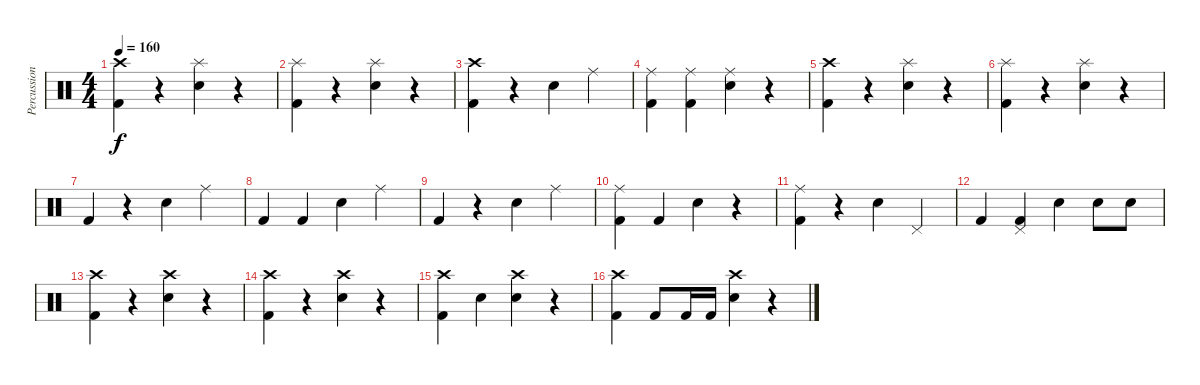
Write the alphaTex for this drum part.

\track ("Percussion" "Percussion") {instrument percussion}
\staff {score}
\articulation defaults
\ts (4 4)
\tempo 160
\clef neutral
\ks c
("Crash high (hit)" "Kick (hit) 2").4{dy f} r.4 ("Splash (hit)" "Snare (hit) 2").4 r.4 |
("Splash (hit)" "Kick (hit) 2").4 r.4 ("Splash (hit)" "Snare (hit) 2").4 r.4 |
("Crash high (hit)" "Kick (hit) 2").4 r.4 "Snare (hit) 2".4 "Ride (middle)".4 |
("Ride (middle)" "Kick (hit) 2").4 ("Ride (middle)" "Kick (hit) 2").4 ("Ride (middle)" "Snare (hit) 2").4 r.4 |
("Crash high (hit)" "Kick (hit) 2").4 r.4 ("Splash (hit)" "Snare (hit) 2").4 r.4 |
("Splash (hit)" "Kick (hit) 2").4 r.4 ("Splash (hit)" "Snare (hit) 2").4 r.4 |
"Kick (hit) 2".4 r.4 "Snare (hit) 2".4 "Ride (middle)".4 |
"Kick (hit) 2".4 "Kick (hit) 2".4 "Snare (hit) 2".4 "Ride (middle)".4 |
"Kick (hit) 2".4 r.4 "Snare (hit) 2".4 "Ride (middle)".4 |
("Ride (middle)" "Kick (hit) 2").4 "Kick (hit) 2".4 "Snare (hit) 2".4 r.4 |
("Ride (middle)" "Kick (hit) 2").4 r.4 "Snare (hit) 2".4 "Pedal Hi-Hat (hit)".4 |
"Kick (hit) 2".4 ("Pedal Hi-Hat (hit)" "Kick (hit) 2").4 "Snare (hit) 2".4 "Snare (hit) 2".8 "Snare (hit) 2".8 |
("Crash high (hit)" "Kick (hit) 2").4 r.4 ("Crash high (hit)" "Snare (hit) 2").4 r.4 |
("Crash high (hit)" "Kick (hit) 2").4 r.4 ("Crash high (hit)" "Snare (hit) 2").4 r.4 |
("Crash high (hit)" "Kick (hit) 2").4 "Snare (hit) 2".4 ("Crash high (hit)" "Snare (hit) 2").4 r.4 |
("Crash high (hit)" "Kick (hit) 2").4 "Kick (hit) 2".8 "Kick (hit) 2".16 "Kick (hit) 2".16 ("Crash high (hit)" "Snare (hit) 2").4 r.4
